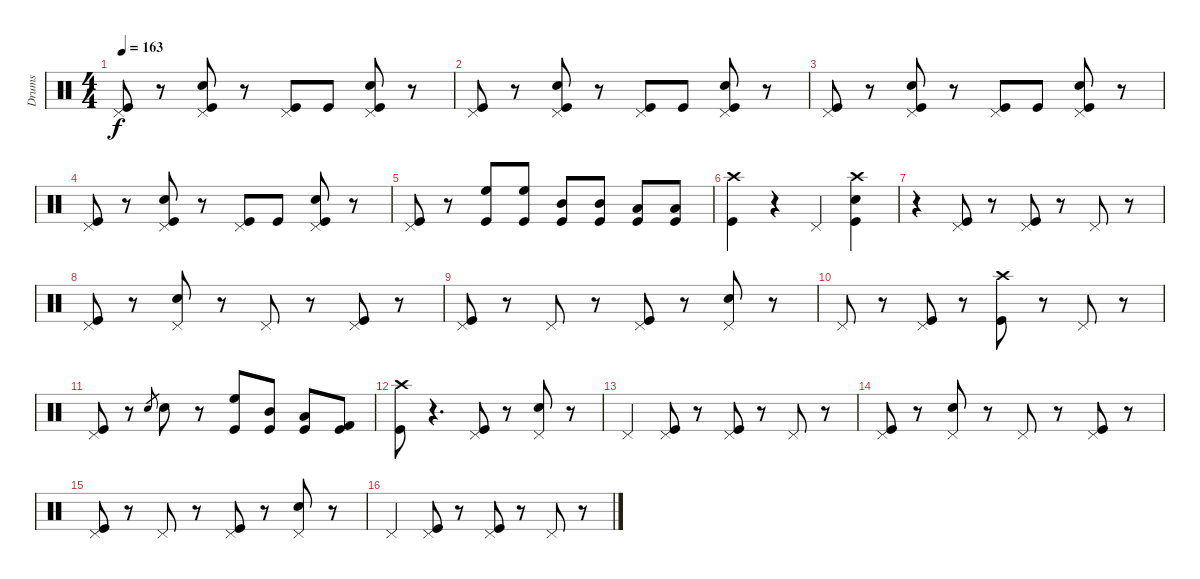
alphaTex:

\track ("Drums" "Drums") {instrument percussion}
\staff {score}
\articulation defaults
\ts (4 4)
\tempo 163
\clef neutral
\ks c
("Pedal Hi-Hat (hit)" "Kick (hit)").8{dy f} r.8 ("Pedal Hi-Hat (hit)" "Snare (hit) 2" "Kick (hit)").8 r.8 ("Pedal Hi-Hat (hit)" "Kick (hit)").8 "Kick (hit)".8 ("Pedal Hi-Hat (hit)" "Snare (hit) 2" "Kick (hit)").8 r.8 |
("Pedal Hi-Hat (hit)" "Kick (hit)").8 r.8 ("Pedal Hi-Hat (hit)" "Snare (hit) 2" "Kick (hit)").8 r.8 ("Pedal Hi-Hat (hit)" "Kick (hit)").8 "Kick (hit)".8 ("Pedal Hi-Hat (hit)" "Snare (hit) 2" "Kick (hit)").8 r.8 |
("Pedal Hi-Hat (hit)" "Kick (hit)").8 r.8 ("Pedal Hi-Hat (hit)" "Snare (hit) 2" "Kick (hit)").8 r.8 ("Pedal Hi-Hat (hit)" "Kick (hit)").8 "Kick (hit)".8 ("Pedal Hi-Hat (hit)" "Snare (hit) 2" "Kick (hit)").8 r.8 |
("Pedal Hi-Hat (hit)" "Kick (hit)").8 r.8 ("Pedal Hi-Hat (hit)" "Snare (hit) 2" "Kick (hit)").8 r.8 ("Pedal Hi-Hat (hit)" "Kick (hit)").8 "Kick (hit)".8 ("Pedal Hi-Hat (hit)" "Snare (hit) 2" "Kick (hit)").8 r.8 |
("Pedal Hi-Hat (hit)" "Kick (hit)").8 r.8 ("High Floor Tom (hit)" "Kick (hit)").8 ("High Floor Tom (hit)" "Kick (hit)").8 ("Mid Tom (hit)" "Kick (hit)").8 ("Mid Tom (hit)" "Kick (hit)").8 ("Low Tom (hit)" "Kick (hit)").8 ("Low Tom (hit)" "Kick (hit)").8 |
("Crash high (hit)" "Kick (hit)").4 r.4 "Pedal Hi-Hat (hit)".4 ("Crash high (hit)" "Snare (hit) 2" "Kick (hit)").4 |
r.4 ("Pedal Hi-Hat (hit)" "Kick (hit)").8 r.8 ("Pedal Hi-Hat (hit)" "Kick (hit)").8 r.8 "Pedal Hi-Hat (hit)".8 r.8 |
("Pedal Hi-Hat (hit)" "Kick (hit)").8 r.8 ("Pedal Hi-Hat (hit)" "Snare (hit) 2").8 r.8 "Pedal Hi-Hat (hit)".8 r.8 ("Pedal Hi-Hat (hit)" "Kick (hit)").8 r.8 |
("Pedal Hi-Hat (hit)" "Kick (hit)").8 r.8 "Pedal Hi-Hat (hit)".8 r.8 ("Pedal Hi-Hat (hit)" "Kick (hit)").8 r.8 ("Pedal Hi-Hat (hit)" "Snare (hit) 2").8 r.8 |
"Pedal Hi-Hat (hit)".8 r.8 ("Pedal Hi-Hat (hit)" "Kick (hit)").8 r.8 ("Crash high (hit)" "Kick (hit)").8 r.8 "Pedal Hi-Hat (hit)".8 r.8 |
("Pedal Hi-Hat (hit)" "Kick (hit)").8 r.8 "Snare (hit) 2".8{gr} "Snare (hit) 2".8 r.8 ("High Floor Tom (hit)" "Kick (hit)").8 ("Mid Tom (hit)" "Kick (hit)").8 ("Low Tom (hit)" "Kick (hit)").8 ("Kick (hit) 2" "Kick (hit)").8 |
("Crash high (hit)" "Kick (hit)").8 r.4{d} ("Pedal Hi-Hat (hit)" "Kick (hit)").8 r.8 ("Pedal Hi-Hat (hit)" "Snare (hit) 2").8 r.8 |
"Pedal Hi-Hat (hit)".4 ("Pedal Hi-Hat (hit)" "Kick (hit)").8 r.8 ("Pedal Hi-Hat (hit)" "Kick (hit)").8 r.8 "Pedal Hi-Hat (hit)".8 r.8 |
("Pedal Hi-Hat (hit)" "Kick (hit)").8 r.8 ("Pedal Hi-Hat (hit)" "Snare (hit) 2").8 r.8 "Pedal Hi-Hat (hit)".8 r.8 ("Pedal Hi-Hat (hit)" "Kick (hit)").8 r.8 |
("Pedal Hi-Hat (hit)" "Kick (hit)").8 r.8 "Pedal Hi-Hat (hit)".8 r.8 ("Pedal Hi-Hat (hit)" "Kick (hit)").8 r.8 ("Pedal Hi-Hat (hit)" "Snare (hit) 2").8 r.8 |
"Pedal Hi-Hat (hit)".4 ("Pedal Hi-Hat (hit)" "Kick (hit)").8 r.8 ("Pedal Hi-Hat (hit)" "Kick (hit)").8 r.8 "Pedal Hi-Hat (hit)".8 r.8
